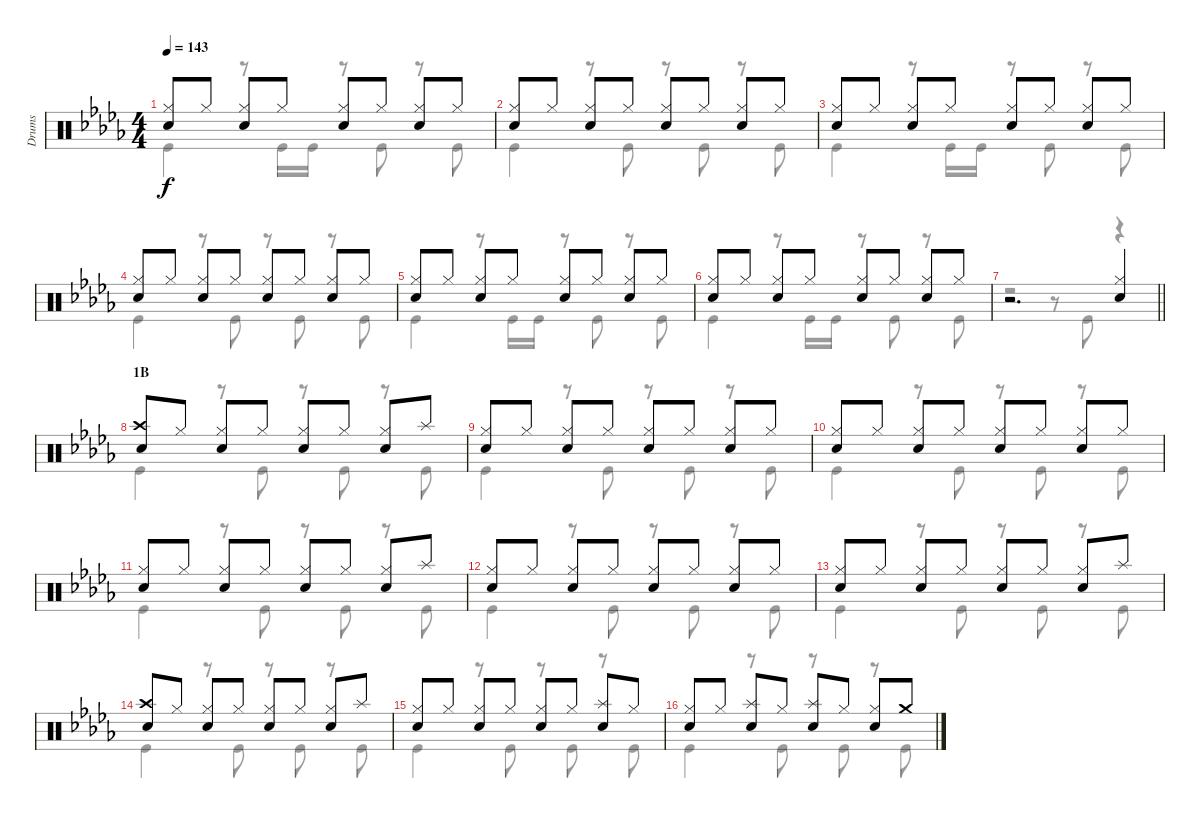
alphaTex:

\track ("Drums" "Drums") {instrument percussion}
\staff {score}
\articulation defaults
\voice
\ts (4 4)
\tempo 143
\clef neutral
\ks db
("Hi-Hat (closed)" "Snare (hit) 2").8{dy f} "Hi-Hat (closed)".8 ("Hi-Hat (closed)" "Snare (hit) 2").8 "Hi-Hat (closed)".8 ("Hi-Hat (closed)" "Snare (hit) 2").8 "Hi-Hat (closed)".8 ("Hi-Hat (closed)" "Snare (hit) 2").8 "Hi-Hat (closed)".8 |
("Hi-Hat (closed)" "Snare (hit) 2").8 "Hi-Hat (closed)".8 ("Hi-Hat (closed)" "Snare (hit) 2").8 "Hi-Hat (closed)".8 ("Hi-Hat (closed)" "Snare (hit) 2").8 "Hi-Hat (closed)".8 ("Hi-Hat (closed)" "Snare (hit) 2").8 "Hi-Hat (closed)".8 |
("Hi-Hat (closed)" "Snare (hit) 2").8 "Hi-Hat (closed)".8 ("Hi-Hat (closed)" "Snare (hit) 2").8 "Hi-Hat (closed)".8 ("Hi-Hat (closed)" "Snare (hit) 2").8 "Hi-Hat (closed)".8 ("Hi-Hat (closed)" "Snare (hit) 2").8 "Hi-Hat (closed)".8 |
("Hi-Hat (closed)" "Snare (hit) 2").8 "Hi-Hat (closed)".8 ("Hi-Hat (closed)" "Snare (hit) 2").8 "Hi-Hat (closed)".8 ("Hi-Hat (closed)" "Snare (hit) 2").8 "Hi-Hat (closed)".8 ("Hi-Hat (closed)" "Snare (hit) 2").8 "Hi-Hat (closed)".8 |
("Hi-Hat (closed)" "Snare (hit) 2").8 "Hi-Hat (closed)".8 ("Hi-Hat (closed)" "Snare (hit) 2").8 "Hi-Hat (closed)".8 ("Hi-Hat (closed)" "Snare (hit) 2").8 "Hi-Hat (closed)".8 ("Hi-Hat (closed)" "Snare (hit) 2").8 "Hi-Hat (closed)".8 |
("Hi-Hat (closed)" "Snare (hit) 2").8 "Hi-Hat (closed)".8 ("Hi-Hat (closed)" "Snare (hit) 2").8 "Hi-Hat (closed)".8 ("Hi-Hat (closed)" "Snare (hit) 2").8 "Hi-Hat (closed)".8 ("Hi-Hat (closed)" "Snare (hit) 2").8 "Hi-Hat (closed)".8 |
\barLineRight lightlight
r.2{d} ("Hi-Hat (closed)" "Snare (hit) 2").4 |
\section ("" "1B")
("Crash high (hit)" "Snare (hit) 2").8 "Hi-Hat (closed)".8 ("Hi-Hat (closed)" "Snare (hit) 2").8 "Hi-Hat (closed)".8 ("Hi-Hat (closed)" "Snare (hit) 2").8 "Hi-Hat (closed)".8 ("Hi-Hat (closed)" "Snare (hit) 2").8 "Splash (hit)".8 |
("Hi-Hat (closed)" "Snare (hit) 2").8 "Hi-Hat (closed)".8 ("Hi-Hat (closed)" "Snare (hit) 2").8 "Hi-Hat (closed)".8 ("Hi-Hat (closed)" "Snare (hit) 2").8 "Hi-Hat (closed)".8 ("Hi-Hat (closed)" "Snare (hit) 2").8 "Hi-Hat (closed)".8 |
("Hi-Hat (closed)" "Snare (hit) 2").8 "Hi-Hat (closed)".8 ("Hi-Hat (closed)" "Snare (hit) 2").8 "Hi-Hat (closed)".8 ("Hi-Hat (closed)" "Snare (hit) 2").8 "Hi-Hat (closed)".8 ("Hi-Hat (closed)" "Snare (hit) 2").8 "Hi-Hat (closed)".8 |
("Hi-Hat (closed)" "Snare (hit) 2").8 "Hi-Hat (closed)".8 ("Hi-Hat (closed)" "Snare (hit) 2").8 "Hi-Hat (closed)".8 ("Hi-Hat (closed)" "Snare (hit) 2").8 "Hi-Hat (closed)".8 ("Hi-Hat (closed)" "Snare (hit) 2").8 "Splash (hit)".8 |
("Hi-Hat (closed)" "Snare (hit) 2").8 "Hi-Hat (closed)".8 ("Hi-Hat (closed)" "Snare (hit) 2").8 "Hi-Hat (closed)".8 ("Hi-Hat (closed)" "Snare (hit) 2").8 "Hi-Hat (closed)".8 ("Hi-Hat (closed)" "Snare (hit) 2").8 "Hi-Hat (closed)".8 |
("Hi-Hat (closed)" "Snare (hit) 2").8 "Hi-Hat (closed)".8 ("Hi-Hat (closed)" "Snare (hit) 2").8 "Hi-Hat (closed)".8 ("Hi-Hat (closed)" "Snare (hit) 2").8 "Hi-Hat (closed)".8 ("Hi-Hat (closed)" "Snare (hit) 2").8 "Splash (hit)".8 |
("Crash high (hit)" "Snare (hit) 2").8 "Hi-Hat (closed)".8 ("Hi-Hat (closed)" "Snare (hit) 2").8 "Hi-Hat (closed)".8 ("Hi-Hat (closed)" "Snare (hit) 2").8 "Hi-Hat (closed)".8 ("Hi-Hat (closed)" "Snare (hit) 2").8 "Splash (hit)".8 |
("Hi-Hat (closed)" "Snare (hit) 2").8 "Hi-Hat (closed)".8 ("Hi-Hat (closed)" "Snare (hit) 2").8 "Hi-Hat (closed)".8 ("Hi-Hat (closed)" "Snare (hit) 2").8 "Hi-Hat (closed)".8 ("Splash (hit)" "Snare (hit) 2").8 "Hi-Hat (closed)".8 |
("Hi-Hat (closed)" "Snare (hit) 2").8 "Hi-Hat (closed)".8 ("Splash (hit)" "Snare (hit) 2").8 "Hi-Hat (closed)".8 ("Splash (hit)" "Snare (hit) 2").8 "Hi-Hat (closed)".8 ("Hi-Hat (closed)" "Snare (hit) 2").8 "Crash medium (hit)".8
\voice
\clef neutral
\ottava regular
\simile none
\ks db "Kick (hit)".4{dy f}
r.8 "Kick (hit)".16 "Kick (hit)".16 r.8 "Kick (hit)".8 r.8 "Kick (hit)".8 |
"Kick (hit)".4 r.8 "Kick (hit)".8 r.8 "Kick (hit)".8 r.8 "Kick (hit)".8 |
"Kick (hit)".4 r.8 "Kick (hit)".16 "Kick (hit)".16 r.8 "Kick (hit)".8 r.8 "Kick (hit)".8 |
"Kick (hit)".4 r.8 "Kick (hit)".8 r.8 "Kick (hit)".8 r.8 "Kick (hit)".8 |
"Kick (hit)".4 r.8 "Kick (hit)".16 "Kick (hit)".16 r.8 "Kick (hit)".8 r.8 "Kick (hit)".8 |
"Kick (hit)".4 r.8 "Kick (hit)".16 "Kick (hit)".16 r.8 "Kick (hit)".8 r.8 "Kick (hit)".8 |
\barLineRight lightlight
r.2 r.8 "Kick (hit)".8 r.4 |
"Kick (hit)".4 r.8 "Kick (hit)".8 r.8 "Kick (hit)".8 r.8 "Kick (hit)".8 |
"Kick (hit)".4 r.8 "Kick (hit)".8 r.8 "Kick (hit)".8 r.8 "Kick (hit)".8 |
"Kick (hit)".4 r.8 "Kick (hit)".8 r.8 "Kick (hit)".8 r.8 "Kick (hit)".8 |
"Kick (hit)".4 r.8 "Kick (hit)".8 r.8 "Kick (hit)".8 r.8 "Kick (hit)".8 |
"Kick (hit)".4 r.8 "Kick (hit)".8 r.8 "Kick (hit)".8 r.8 "Kick (hit)".8 |
"Kick (hit)".4 r.8 "Kick (hit)".8 r.8 "Kick (hit)".8 r.8 "Kick (hit)".8 |
"Kick (hit)".4 r.8 "Kick (hit)".8 r.8 "Kick (hit)".8 r.8 "Kick (hit)".8 |
"Kick (hit)".4 r.8 "Kick (hit)".8 r.8 "Kick (hit)".8 r.8 "Kick (hit)".8 |
"Kick (hit)".4 r.8 "Kick (hit)".8 r.8 "Kick (hit)".8 r.8 "Kick (hit)".8
